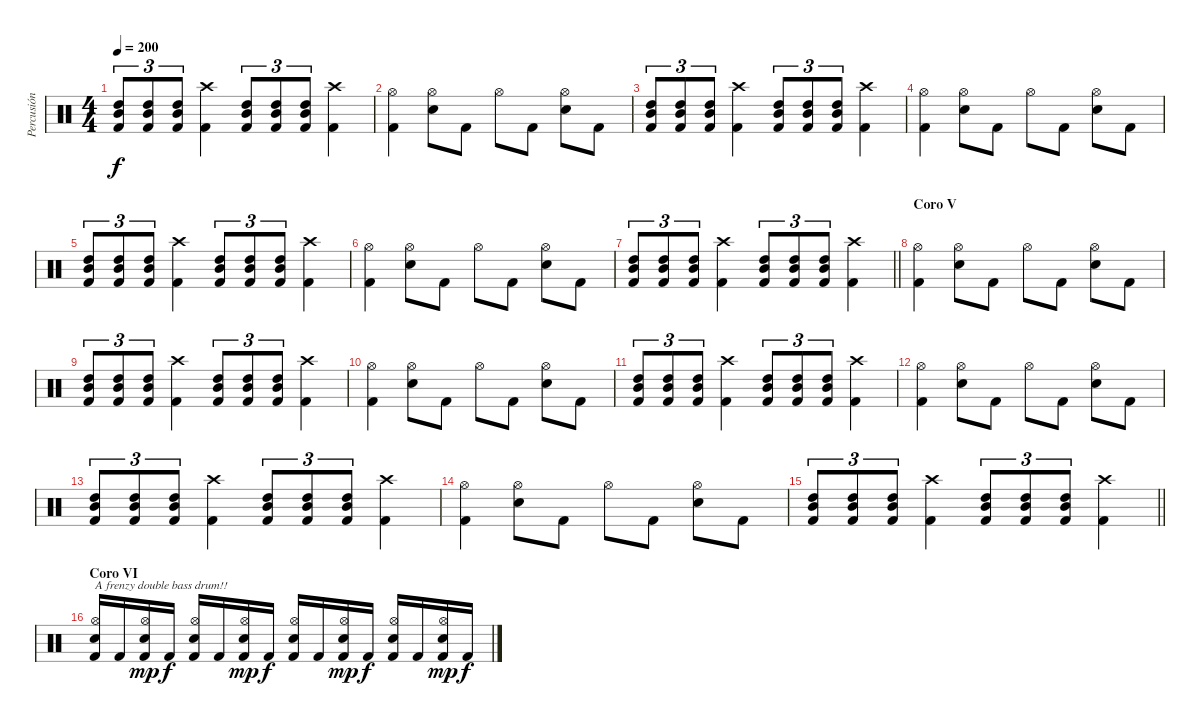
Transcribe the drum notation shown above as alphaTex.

\track ("Percusión" "Percusión") {instrument percussion}
\staff {score}
\articulation defaults
\ts (4 4)
\tempo 200
\clef neutral
\ks c
("High Tom (hit)" "Mid Tom (hit)" "Kick (hit) 2").8{tu (3 2) dy f} ("High Tom (hit)" "Mid Tom (hit)" "Kick (hit) 2").8{tu (3 2)} ("High Tom (hit)" "Mid Tom (hit)" "Kick (hit) 2").8{tu (3 2)} ("Crash high (hit)" "Kick (hit) 2").4 ("High Tom (hit)" "Mid Tom (hit)" "Kick (hit) 2").8{tu (3 2)} ("High Tom (hit)" "Mid Tom (hit)" "Kick (hit) 2").8{tu (3 2)} ("High Tom (hit)" "Mid Tom (hit)" "Kick (hit) 2").8{tu (3 2)} ("Crash high (hit)" "Kick (hit) 2").4 |
("Hi-Hat (open)" "Kick (hit) 2").4 ("Hi-Hat (open)" "Electric Snare (hit)").8 "Kick (hit) 2".8 "Hi-Hat (open)".8 "Kick (hit) 2".8 ("Hi-Hat (open)" "Electric Snare (hit)").8 "Kick (hit) 2".8 |
("High Tom (hit)" "Mid Tom (hit)" "Kick (hit) 2").8{tu (3 2)} ("High Tom (hit)" "Mid Tom (hit)" "Kick (hit) 2").8{tu (3 2)} ("High Tom (hit)" "Mid Tom (hit)" "Kick (hit) 2").8{tu (3 2)} ("Crash high (hit)" "Kick (hit) 2").4 ("High Tom (hit)" "Mid Tom (hit)" "Kick (hit) 2").8{tu (3 2)} ("High Tom (hit)" "Mid Tom (hit)" "Kick (hit) 2").8{tu (3 2)} ("High Tom (hit)" "Mid Tom (hit)" "Kick (hit) 2").8{tu (3 2)} ("Crash high (hit)" "Kick (hit) 2").4 |
("Hi-Hat (open)" "Kick (hit) 2").4 ("Hi-Hat (open)" "Electric Snare (hit)").8 "Kick (hit) 2".8 "Hi-Hat (open)".8 "Kick (hit) 2".8 ("Hi-Hat (open)" "Electric Snare (hit)").8 "Kick (hit) 2".8 |
("High Tom (hit)" "Mid Tom (hit)" "Kick (hit) 2").8{tu (3 2)} ("High Tom (hit)" "Mid Tom (hit)" "Kick (hit) 2").8{tu (3 2)} ("High Tom (hit)" "Mid Tom (hit)" "Kick (hit) 2").8{tu (3 2)} ("Crash high (hit)" "Kick (hit) 2").4 ("High Tom (hit)" "Mid Tom (hit)" "Kick (hit) 2").8{tu (3 2)} ("High Tom (hit)" "Mid Tom (hit)" "Kick (hit) 2").8{tu (3 2)} ("High Tom (hit)" "Mid Tom (hit)" "Kick (hit) 2").8{tu (3 2)} ("Crash high (hit)" "Kick (hit) 2").4 |
("Hi-Hat (open)" "Kick (hit) 2").4 ("Hi-Hat (open)" "Electric Snare (hit)").8 "Kick (hit) 2".8 "Hi-Hat (open)".8 "Kick (hit) 2".8 ("Hi-Hat (open)" "Electric Snare (hit)").8 "Kick (hit) 2".8 |
\barLineRight lightlight
("High Tom (hit)" "Mid Tom (hit)" "Kick (hit) 2").8{tu (3 2)} ("High Tom (hit)" "Mid Tom (hit)" "Kick (hit) 2").8{tu (3 2)} ("High Tom (hit)" "Mid Tom (hit)" "Kick (hit) 2").8{tu (3 2)} ("Crash high (hit)" "Kick (hit) 2").4 ("High Tom (hit)" "Mid Tom (hit)" "Kick (hit) 2").8{tu (3 2)} ("High Tom (hit)" "Mid Tom (hit)" "Kick (hit) 2").8{tu (3 2)} ("High Tom (hit)" "Mid Tom (hit)" "Kick (hit) 2").8{tu (3 2)} ("Crash high (hit)" "Kick (hit) 2").4 |
\section ("" "Coro V")
("Hi-Hat (open)" "Kick (hit) 2").4 ("Hi-Hat (open)" "Electric Snare (hit)").8 "Kick (hit) 2".8 "Hi-Hat (open)".8 "Kick (hit) 2".8 ("Hi-Hat (open)" "Electric Snare (hit)").8 "Kick (hit) 2".8 |
("High Tom (hit)" "Mid Tom (hit)" "Kick (hit) 2").8{tu (3 2)} ("High Tom (hit)" "Mid Tom (hit)" "Kick (hit) 2").8{tu (3 2)} ("High Tom (hit)" "Mid Tom (hit)" "Kick (hit) 2").8{tu (3 2)} ("Crash high (hit)" "Kick (hit) 2").4 ("High Tom (hit)" "Mid Tom (hit)" "Kick (hit) 2").8{tu (3 2)} ("High Tom (hit)" "Mid Tom (hit)" "Kick (hit) 2").8{tu (3 2)} ("High Tom (hit)" "Mid Tom (hit)" "Kick (hit) 2").8{tu (3 2)} ("Crash high (hit)" "Kick (hit) 2").4 |
("Hi-Hat (open)" "Kick (hit) 2").4 ("Hi-Hat (open)" "Electric Snare (hit)").8 "Kick (hit) 2".8 "Hi-Hat (open)".8 "Kick (hit) 2".8 ("Hi-Hat (open)" "Electric Snare (hit)").8 "Kick (hit) 2".8 |
("High Tom (hit)" "Mid Tom (hit)" "Kick (hit) 2").8{tu (3 2)} ("High Tom (hit)" "Mid Tom (hit)" "Kick (hit) 2").8{tu (3 2)} ("High Tom (hit)" "Mid Tom (hit)" "Kick (hit) 2").8{tu (3 2)} ("Crash high (hit)" "Kick (hit) 2").4 ("High Tom (hit)" "Mid Tom (hit)" "Kick (hit) 2").8{tu (3 2)} ("High Tom (hit)" "Mid Tom (hit)" "Kick (hit) 2").8{tu (3 2)} ("High Tom (hit)" "Mid Tom (hit)" "Kick (hit) 2").8{tu (3 2)} ("Crash high (hit)" "Kick (hit) 2").4 |
("Hi-Hat (open)" "Kick (hit) 2").4 ("Hi-Hat (open)" "Electric Snare (hit)").8 "Kick (hit) 2".8 "Hi-Hat (open)".8 "Kick (hit) 2".8 ("Hi-Hat (open)" "Electric Snare (hit)").8 "Kick (hit) 2".8 |
("High Tom (hit)" "Mid Tom (hit)" "Kick (hit) 2").8{tu (3 2)} ("High Tom (hit)" "Mid Tom (hit)" "Kick (hit) 2").8{tu (3 2)} ("High Tom (hit)" "Mid Tom (hit)" "Kick (hit) 2").8{tu (3 2)} ("Crash high (hit)" "Kick (hit) 2").4 ("High Tom (hit)" "Mid Tom (hit)" "Kick (hit) 2").8{tu (3 2)} ("High Tom (hit)" "Mid Tom (hit)" "Kick (hit) 2").8{tu (3 2)} ("High Tom (hit)" "Mid Tom (hit)" "Kick (hit) 2").8{tu (3 2)} ("Crash high (hit)" "Kick (hit) 2").4 |
("Hi-Hat (open)" "Kick (hit) 2").4 ("Hi-Hat (open)" "Electric Snare (hit)").8 "Kick (hit) 2".8 "Hi-Hat (open)".8 "Kick (hit) 2".8 ("Hi-Hat (open)" "Electric Snare (hit)").8 "Kick (hit) 2".8 |
\barLineRight lightlight
("High Tom (hit)" "Mid Tom (hit)" "Kick (hit) 2").8{tu (3 2)} ("High Tom (hit)" "Mid Tom (hit)" "Kick (hit) 2").8{tu (3 2)} ("High Tom (hit)" "Mid Tom (hit)" "Kick (hit) 2").8{tu (3 2)} ("Crash high (hit)" "Kick (hit) 2").4 ("High Tom (hit)" "Mid Tom (hit)" "Kick (hit) 2").8{tu (3 2)} ("High Tom (hit)" "Mid Tom (hit)" "Kick (hit) 2").8{tu (3 2)} ("High Tom (hit)" "Mid Tom (hit)" "Kick (hit) 2").8{tu (3 2)} ("Crash high (hit)" "Kick (hit) 2").4 |
\section ("" "Coro VI")
("Hi-Hat (open)" "Electric Snare (hit)" "Kick (hit) 2").16{txt "A frenzy double bass drum!! "} "Kick (hit) 2".16 ("Hi-Hat (open)" "Electric Snare (hit)" "Kick (hit) 2").16{dy mp} "Kick (hit) 2".16{dy f} ("Hi-Hat (open)" "Electric Snare (hit)" "Kick (hit) 2").16 "Kick (hit) 2".16 ("Hi-Hat (open)" "Electric Snare (hit)" "Kick (hit) 2").16{dy mp} "Kick (hit) 2".16{dy f} ("Hi-Hat (open)" "Electric Snare (hit)" "Kick (hit) 2").16 "Kick (hit) 2".16 ("Hi-Hat (open)" "Electric Snare (hit)" "Kick (hit) 2").16{dy mp} "Kick (hit) 2".16{dy f} ("Hi-Hat (open)" "Electric Snare (hit)" "Kick (hit) 2").16 "Kick (hit) 2".16 ("Hi-Hat (open)" "Electric Snare (hit)" "Kick (hit) 2").16{dy mp} "Kick (hit) 2".16{dy f}
